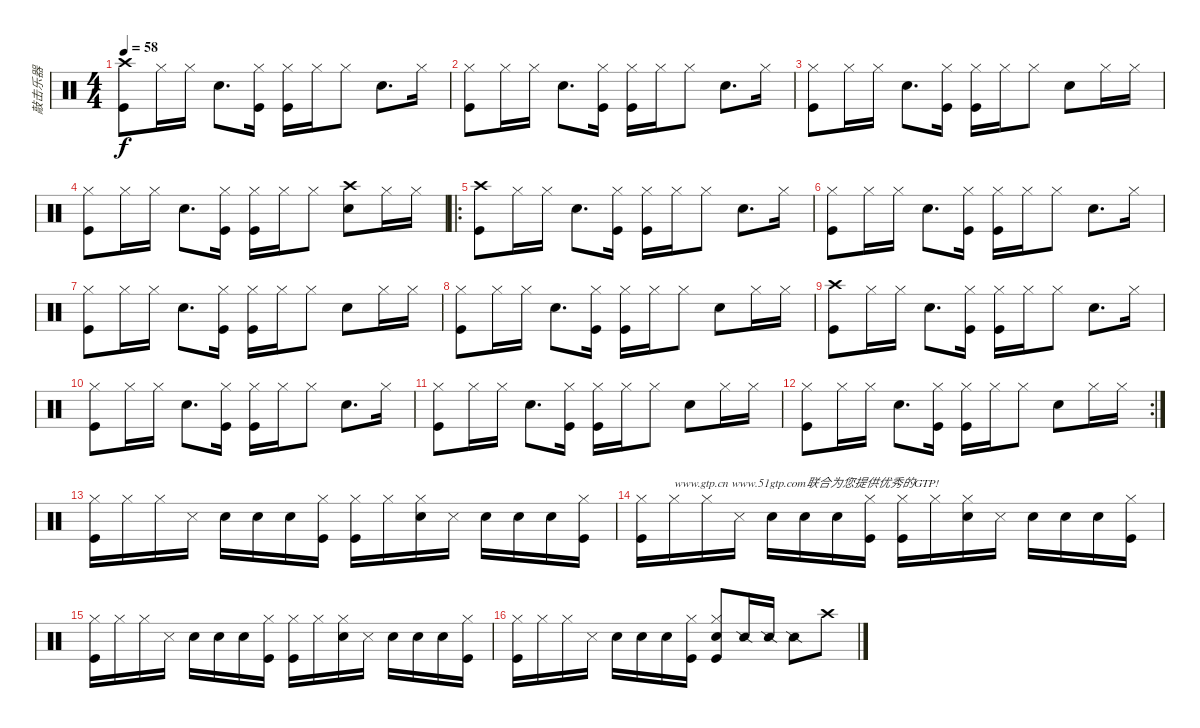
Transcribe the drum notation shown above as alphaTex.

\track ("敲击乐器" "敲击乐器") {instrument percussion}
\staff {score}
\articulation defaults
\ts (4 4)
\tempo 58
\clef neutral
\ks c
("Crash high (hit)" "Kick (hit)").8{dy f} "Hi-Hat (closed)".16 "Hi-Hat (closed)".16 "Hand Clap (hit)".8{d} ("Hi-Hat (closed)" "Kick (hit)").16 ("Hi-Hat (closed)" "Kick (hit)").16 "Hi-Hat (closed)".16 "Hi-Hat (closed)".8 "Hand Clap (hit)".8{d} "Hi-Hat (closed)".16 |
("Hi-Hat (closed)" "Kick (hit)").8 "Hi-Hat (closed)".16 "Hi-Hat (closed)".16 "Hand Clap (hit)".8{d} ("Hi-Hat (closed)" "Kick (hit)").16 ("Hi-Hat (closed)" "Kick (hit)").16 "Hi-Hat (closed)".16 "Hi-Hat (closed)".8 "Hand Clap (hit)".8{d} "Hi-Hat (closed)".16 |
("Hi-Hat (closed)" "Kick (hit)").8 "Hi-Hat (closed)".16 "Hi-Hat (closed)".16 "Hand Clap (hit)".8{d} ("Hi-Hat (closed)" "Kick (hit)").16 ("Hi-Hat (closed)" "Kick (hit)").16 "Hi-Hat (closed)".16 "Hi-Hat (closed)".8 "Hand Clap (hit)".8 "Hi-Hat (closed)".16 "Hi-Hat (closed)".16 |
("Hi-Hat (closed)" "Kick (hit)").8 "Hi-Hat (closed)".16 "Hi-Hat (closed)".16 "Hand Clap (hit)".8{d} ("Hi-Hat (closed)" "Kick (hit)").16 ("Hi-Hat (closed)" "Kick (hit)").16 "Hi-Hat (closed)".16 "Hi-Hat (closed)".8 ("Crash high (hit)" "Hand Clap (hit)").8 "Hi-Hat (closed)".16 "Hi-Hat (closed)".16 |
\ro
("Crash high (hit)" "Kick (hit)").8 "Hi-Hat (closed)".16 "Hi-Hat (closed)".16 "Hand Clap (hit)".8{d} ("Hi-Hat (closed)" "Kick (hit)").16 ("Hi-Hat (closed)" "Kick (hit)").16 "Hi-Hat (closed)".16 "Hi-Hat (closed)".8 "Hand Clap (hit)".8{d} "Hi-Hat (closed)".16 |
("Hi-Hat (closed)" "Kick (hit)").8 "Hi-Hat (closed)".16 "Hi-Hat (closed)".16 "Hand Clap (hit)".8{d} ("Hi-Hat (closed)" "Kick (hit)").16 ("Hi-Hat (closed)" "Kick (hit)").16 "Hi-Hat (closed)".16 "Hi-Hat (closed)".8 "Hand Clap (hit)".8{d} "Hi-Hat (closed)".16 |
("Hi-Hat (closed)" "Kick (hit)").8 "Hi-Hat (closed)".16 "Hi-Hat (closed)".16 "Hand Clap (hit)".8{d} ("Hi-Hat (closed)" "Kick (hit)").16 ("Hi-Hat (closed)" "Kick (hit)").16 "Hi-Hat (closed)".16 "Hi-Hat (closed)".8 "Hand Clap (hit)".8 "Hi-Hat (closed)".16 "Hi-Hat (closed)".16 |
("Hi-Hat (closed)" "Kick (hit)").8 "Hi-Hat (closed)".16 "Hi-Hat (closed)".16 "Hand Clap (hit)".8{d} ("Hi-Hat (closed)" "Kick (hit)").16 ("Hi-Hat (closed)" "Kick (hit)").16 "Hi-Hat (closed)".16 "Hi-Hat (closed)".8 "Hand Clap (hit)".8 "Hi-Hat (closed)".16 "Hi-Hat (closed)".16 |
("Crash high (hit)" "Kick (hit)").8 "Hi-Hat (closed)".16 "Hi-Hat (closed)".16 "Hand Clap (hit)".8{d} ("Hi-Hat (closed)" "Kick (hit)").16 ("Hi-Hat (closed)" "Kick (hit)").16 "Hi-Hat (closed)".16 "Hi-Hat (closed)".8 "Hand Clap (hit)".8{d} "Hi-Hat (closed)".16 |
("Hi-Hat (closed)" "Kick (hit)").8 "Hi-Hat (closed)".16 "Hi-Hat (closed)".16 "Hand Clap (hit)".8{d} ("Hi-Hat (closed)" "Kick (hit)").16 ("Hi-Hat (closed)" "Kick (hit)").16 "Hi-Hat (closed)".16 "Hi-Hat (closed)".8 "Hand Clap (hit)".8{d} "Hi-Hat (closed)".16 |
("Hi-Hat (closed)" "Kick (hit)").8 "Hi-Hat (closed)".16 "Hi-Hat (closed)".16 "Hand Clap (hit)".8{d} ("Hi-Hat (closed)" "Kick (hit)").16 ("Hi-Hat (closed)" "Kick (hit)").16 "Hi-Hat (closed)".16 "Hi-Hat (closed)".8 "Hand Clap (hit)".8 "Hi-Hat (closed)".16 "Hi-Hat (closed)".16 |
\rc 2
("Hi-Hat (closed)" "Kick (hit)").8 "Hi-Hat (closed)".16 "Hi-Hat (closed)".16 "Hand Clap (hit)".8{d} ("Hi-Hat (closed)" "Kick (hit)").16 ("Hi-Hat (closed)" "Kick (hit)").16 "Hi-Hat (closed)".16 "Hi-Hat (closed)".8 "Hand Clap (hit)".8 "Hi-Hat (closed)".16 "Hi-Hat (closed)".16 |
("Hi-Hat (closed)" "Kick (hit)").16 "Hi-Hat (closed)".16 "Hi-Hat (closed)".16 "Snare (side stick) 3".16 "Hand Clap (hit)".16 "Hand Clap (hit)".16 "Hand Clap (hit)".16 ("Hi-Hat (closed)" "Kick (hit)").16 ("Hi-Hat (closed)" "Kick (hit)").16 "Hi-Hat (closed)".16 ("Hi-Hat (closed)" "Snare (hit) 2").16 "Snare (side stick) 3".16 "Hand Clap (hit)".16 "Hand Clap (hit)".16 "Hand Clap (hit)".16 ("Hi-Hat (closed)" "Kick (hit)").16 |
("Hi-Hat (closed)" "Kick (hit)").16 "Hi-Hat (closed)".16{txt "www.gtp.cn www.51gtp.com联合为您提供优秀的GTP!"} "Hi-Hat (closed)".16 "Snare (side stick) 3".16 "Hand Clap (hit)".16 "Hand Clap (hit)".16 "Hand Clap (hit)".16 ("Hi-Hat (closed)" "Kick (hit)").16 ("Hi-Hat (closed)" "Kick (hit)").16 "Hi-Hat (closed)".16 ("Hi-Hat (closed)" "Snare (hit) 2").16 "Snare (side stick) 3".16 "Hand Clap (hit)".16 "Hand Clap (hit)".16 "Hand Clap (hit)".16 ("Hi-Hat (closed)" "Kick (hit)").16 |
("Hi-Hat (closed)" "Kick (hit)").16 "Hi-Hat (closed)".16 "Hi-Hat (closed)".16 "Snare (side stick) 3".16 "Hand Clap (hit)".16 "Hand Clap (hit)".16 "Hand Clap (hit)".16 ("Hi-Hat (closed)" "Kick (hit)").16 ("Hi-Hat (closed)" "Kick (hit)").16 "Hi-Hat (closed)".16 ("Hi-Hat (closed)" "Snare (hit) 2").16 "Snare (side stick) 3".16 "Hand Clap (hit)".16 "Hand Clap (hit)".16 "Hand Clap (hit)".16 ("Hi-Hat (closed)" "Kick (hit)").16 |
("Hi-Hat (closed)" "Kick (hit)").16 "Hi-Hat (closed)".16 "Hi-Hat (closed)".16 "Snare (side stick) 3".16 "Hand Clap (hit)".16 "Hand Clap (hit)".16 "Hand Clap (hit)".16 ("Hi-Hat (closed)" "Kick (hit)").16 ("Hi-Hat (closed)" "Snare (hit) 2" "Kick (hit)").8 "Snare (side stick) 2".16 "Snare (side stick) 2".16 "Snare (side stick) 2".8 "Crash high (hit)".8
